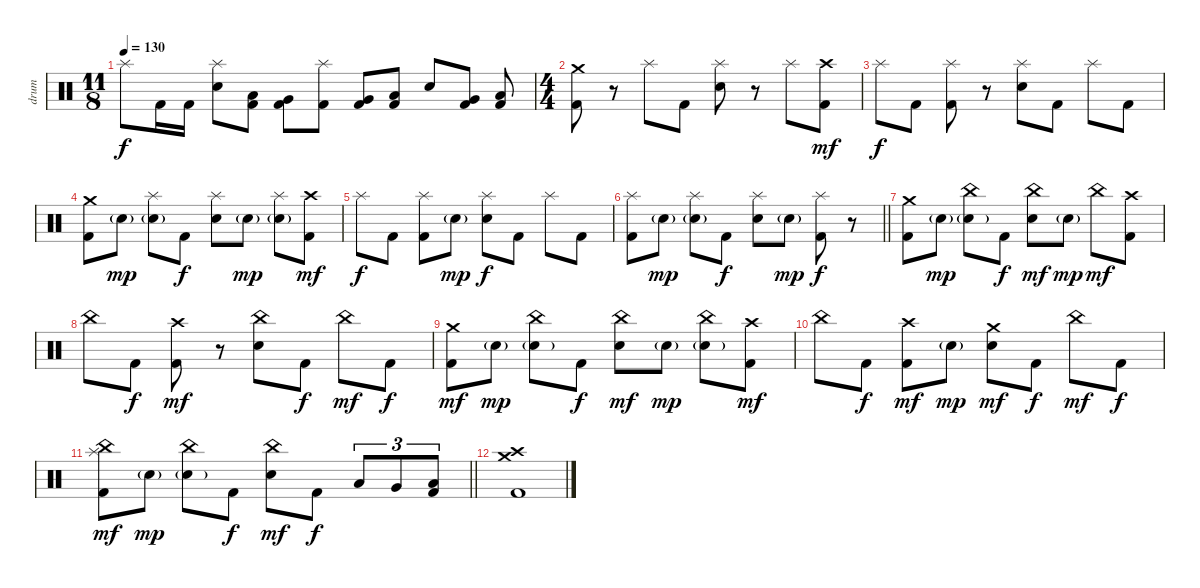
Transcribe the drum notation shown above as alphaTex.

\track ("drum" "drum") {instrument percussion}
\staff {score}
\articulation defaults
\ts (11 8)
\tempo 130
\clef neutral
\ks c "Splash (hit)".8{dy f} "Kick (hit) 2".16 "Kick (hit) 2".16
("Splash (hit)" "Electric Snare (hit)").8 ("Low Tom (hit)" "Kick (hit) 2").8 ("Very Low Tom (hit)" "Kick (hit) 2").8 ("Splash (hit)" "Kick (hit) 2").8 ("Very Low Tom (hit)" "Kick (hit) 2").8 ("Low Floor Tom (hit)" "Kick (hit) 2").8 "Electric Snare (hit)".8 ("Very Low Tom (hit)" "Kick (hit) 2").8 ("Low Floor Tom (hit)" "Kick (hit) 2").8 |
\ts (4 4)
("Crash medium (hit)" "Kick (hit) 2").8 r.8 "Splash (hit)".8 "Kick (hit) 2".8 ("Splash (hit)" "Electric Snare (hit)").8 r.8 "Splash (hit)".8 ("Crash high (hit)" "Kick (hit) 2").8{dy mf} |
"Splash (hit)".8{dy f} "Kick (hit) 2".8 ("Splash (hit)" "Kick (hit) 2").8 r.8 ("Splash (hit)" "Electric Snare (hit)").8 "Kick (hit) 2".8 "Splash (hit)".8 "Kick (hit) 2".8 |
("Crash medium (hit)" "Kick (hit) 2").8 "Electric Snare (hit)"{g}.8{dy mp} ("Splash (hit)" "Electric Snare (hit)"{g}).8 "Kick (hit) 2".8{dy f} ("Splash (hit)" "Electric Snare (hit)").8 "Electric Snare (hit)"{g}.8{dy mp} ("Splash (hit)" "Electric Snare (hit)"{g}).8 ("Crash high (hit)" "Kick (hit) 2").8{dy mf} |
"Splash (hit)".8{dy f} "Kick (hit) 2".8 ("Splash (hit)" "Kick (hit) 2").8 "Electric Snare (hit)"{g}.8{dy mp} ("Splash (hit)" "Electric Snare (hit)").8{dy f} "Kick (hit) 2".8 "Splash (hit)".8 "Kick (hit) 2".8 |
\barLineRight lightlight
("Splash (hit)" "Kick (hit) 2").8 "Electric Snare (hit)"{g}.8{dy mp} ("Splash (hit)" "Electric Snare (hit)"{g}).8 "Kick (hit) 2".8{dy f} ("Splash (hit)" "Electric Snare (hit)").8 "Electric Snare (hit)"{g}.8{dy mp} ("Splash (hit)" "Kick (hit) 2").8{dy f} r.8 |
("Crash medium (hit)" "Kick (hit) 2").8 "Electric Snare (hit)"{g}.8{dy mp} ("China (hit)" "Electric Snare (hit)"{g}).8 "Kick (hit) 2".8{dy f} ("China (hit)" "Electric Snare (hit)").8{dy mf} "Electric Snare (hit)"{g}.8{dy mp} "China (hit)".8{dy mf} ("Crash high (hit)" "Kick (hit) 2").8 |
"China (hit)".8 "Kick (hit) 2".8{dy f} ("Crash high (hit)" "Kick (hit) 2").8{dy mf} r.8 ("China (hit)" "Electric Snare (hit)").8 "Kick (hit) 2".8{dy f} "China (hit)".8{dy mf} "Kick (hit) 2".8{dy f} |
("Crash medium (hit)" "Kick (hit) 2").8{dy mf} "Electric Snare (hit)"{g}.8{dy mp} ("China (hit)" "Electric Snare (hit)"{g}).8 "Kick (hit) 2".8{dy f} ("China (hit)" "Electric Snare (hit)").8{dy mf} "Electric Snare (hit)"{g}.8{dy mp} ("China (hit)" "Electric Snare (hit)"{g}).8 ("Crash high (hit)" "Kick (hit) 2").8{dy mf} |
"China (hit)".8 "Kick (hit) 2".8{dy f} ("Crash high (hit)" "Kick (hit) 2").8{dy mf} "Electric Snare (hit)"{g}.8{dy mp} ("Crash medium (hit)" "Electric Snare (hit)").8{dy mf} "Kick (hit) 2".8{dy f} "China (hit)".8{dy mf} "Kick (hit) 2".8{dy f} |
\barLineRight lightlight
("China (hit)" "Splash (hit)" "Kick (hit) 2").8{dy mf} "Electric Snare (hit)"{g}.8{dy mp} ("China (hit)" "Electric Snare (hit)"{g}).8 "Kick (hit) 2".8{dy f} ("China (hit)" "Electric Snare (hit)").8{dy mf} "Kick (hit) 2".8{dy f} "Low Tom (hit)".8{tu (3 2)} "Very Low Tom (hit)".8{tu (3 2)} ("Low Floor Tom (hit)" "Kick (hit) 2").8{tu (3 2)} |
("Crash medium (hit)" "Crash high (hit)" "Kick (hit) 2").1
